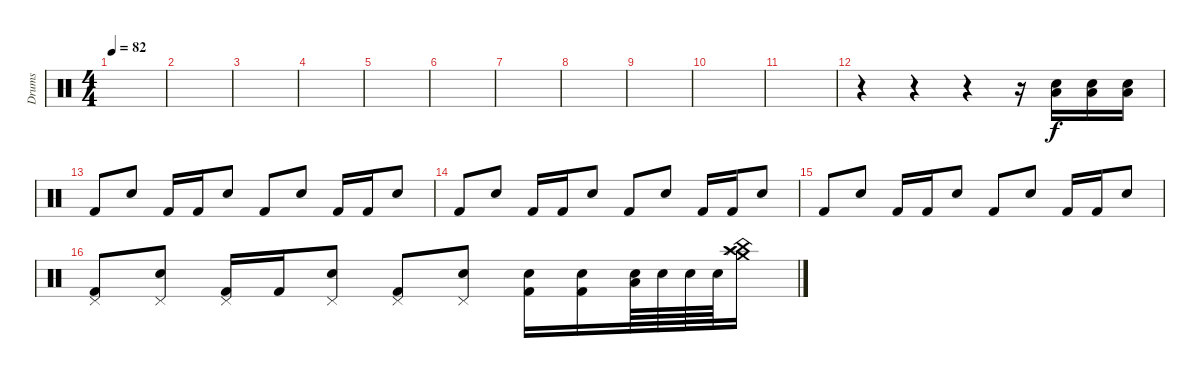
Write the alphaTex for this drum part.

\track ("Drums" "Drums") {instrument percussion}
\staff {score}
\articulation defaults
\ts (4 4)
\tempo 82
\clef neutral
\ks c
|
|
|
|
|
|
|
|
|
|
|
r.4 r.4 r.4 r.16 ("Low Floor Tom (hit)" "Snare (hit) 2").16 ("Low Floor Tom (hit)" "Snare (hit) 2").16 ("Low Floor Tom (hit)" "Snare (hit) 2").16 |
"Kick (hit) 2".8 "Snare (hit) 2".8 "Kick (hit) 2".16 "Kick (hit) 2".16 "Snare (hit) 2".8 "Kick (hit) 2".8 "Snare (hit) 2".8 "Kick (hit) 2".16 "Kick (hit) 2".16 "Snare (hit) 2".8 |
"Kick (hit) 2".8 "Snare (hit) 2".8 "Kick (hit) 2".16 "Kick (hit) 2".16 "Snare (hit) 2".8 "Kick (hit) 2".8 "Snare (hit) 2".8 "Kick (hit) 2".16 "Kick (hit) 2".16 "Snare (hit) 2".8 |
"Kick (hit) 2".8 "Snare (hit) 2".8 "Kick (hit) 2".16 "Kick (hit) 2".16 "Snare (hit) 2".8 "Kick (hit) 2".8 "Snare (hit) 2".8 "Kick (hit) 2".16 "Kick (hit) 2".16 "Snare (hit) 2".8 |
("Kick (hit) 2" "Pedal Hi-Hat (hit)").8 ("Snare (hit) 2" "Pedal Hi-Hat (hit)").8 ("Kick (hit) 2" "Pedal Hi-Hat (hit)").16 "Kick (hit) 2".16 ("Snare (hit) 2" "Pedal Hi-Hat (hit)").8 ("Kick (hit) 2" "Pedal Hi-Hat (hit)").8 ("Snare (hit) 2" "Pedal Hi-Hat (hit)").8 ("Kick (hit) 2" "Electric Snare (hit)").16 ("Kick (hit) 2" "Electric Snare (hit)").16 ("Snare (hit) 2" "Low Floor Tom (hit)").64 "Snare (hit) 2".64 "Snare (hit) 2".64 "Snare (hit) 2".64 ("China (hit)" "Crash high (hit)" "Splash (hit)" "Crash medium (hit)").16
